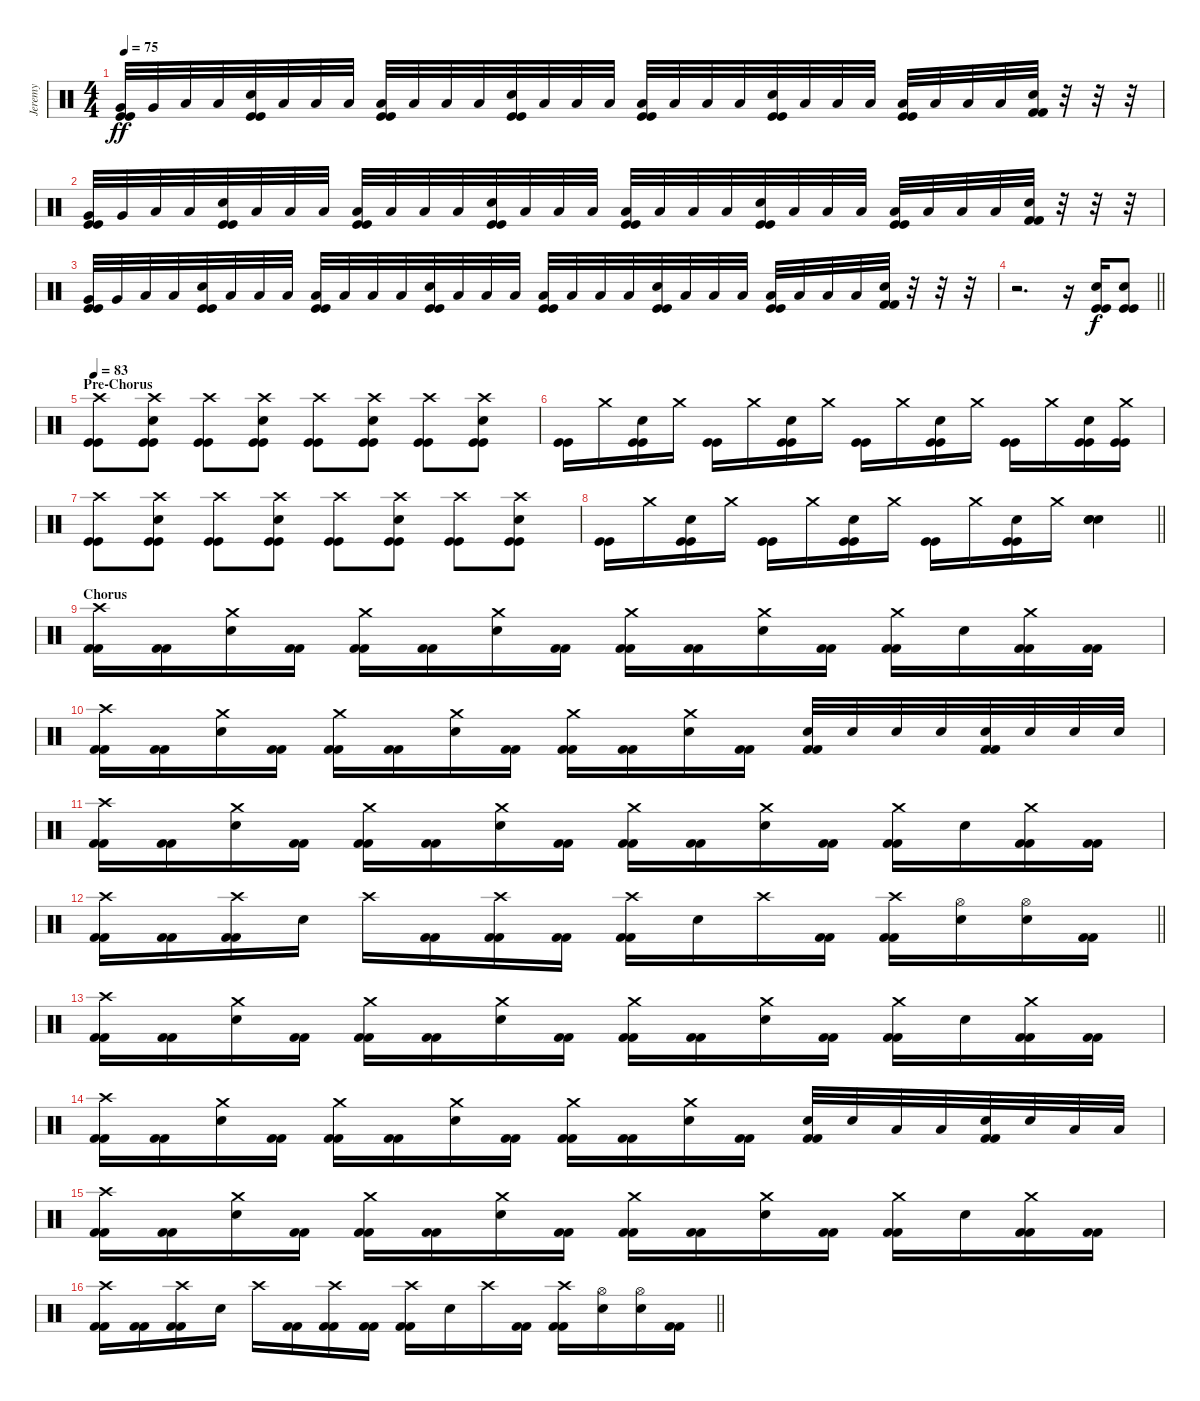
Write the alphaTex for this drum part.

\track ("Jeremy" "Jeremy") {instrument percussion}
\staff {score}
\articulation defaults
\ts (4 4)
\tempo 75
\clef neutral
\ks c
("Very Low Tom (hit)" "Kick (hit)" "Kick (hit)").32{dy ff} "Very Low Tom (hit)".32 "Low Floor Tom (hit)".32 "Low Floor Tom (hit)".32 ("Electric Snare (hit)" "Kick (hit)" "Kick (hit)").32 "Low Floor Tom (hit)".32 "Low Floor Tom (hit)".32 "Low Floor Tom (hit)".32 ("Low Floor Tom (hit)" "Kick (hit)" "Kick (hit)").32 "Low Floor Tom (hit)".32 "Low Floor Tom (hit)".32 "Low Floor Tom (hit)".32 ("Electric Snare (hit)" "Kick (hit)" "Kick (hit)").32 "Low Floor Tom (hit)".32 "Low Floor Tom (hit)".32 "Low Floor Tom (hit)".32 ("Low Floor Tom (hit)" "Kick (hit)" "Kick (hit)").32 "Low Floor Tom (hit)".32 "Low Floor Tom (hit)".32 "Low Floor Tom (hit)".32 ("Electric Snare (hit)" "Kick (hit)" "Kick (hit)").32 "Low Floor Tom (hit)".32 "Low Floor Tom (hit)".32 "Low Floor Tom (hit)".32 ("Low Floor Tom (hit)" "Kick (hit)" "Kick (hit)").32 "Low Floor Tom (hit)".32 "Low Floor Tom (hit)".32 "Low Floor Tom (hit)".32 ("Electric Snare (hit)" "Kick (hit) 2" "Kick (hit) 2").32 r.32 r.32 r.32 |
("Very Low Tom (hit)" "Kick (hit)" "Kick (hit)").32 "Very Low Tom (hit)".32 "Low Floor Tom (hit)".32 "Low Floor Tom (hit)".32 ("Electric Snare (hit)" "Kick (hit)" "Kick (hit)").32 "Low Floor Tom (hit)".32 "Low Floor Tom (hit)".32 "Low Floor Tom (hit)".32 ("Low Floor Tom (hit)" "Kick (hit)" "Kick (hit)").32 "Low Floor Tom (hit)".32 "Low Floor Tom (hit)".32 "Low Floor Tom (hit)".32 ("Electric Snare (hit)" "Kick (hit)" "Kick (hit)").32 "Low Floor Tom (hit)".32 "Low Floor Tom (hit)".32 "Low Floor Tom (hit)".32 ("Low Floor Tom (hit)" "Kick (hit)" "Kick (hit)").32 "Low Floor Tom (hit)".32 "Low Floor Tom (hit)".32 "Low Floor Tom (hit)".32 ("Electric Snare (hit)" "Kick (hit)" "Kick (hit)").32 "Low Floor Tom (hit)".32 "Low Floor Tom (hit)".32 "Low Floor Tom (hit)".32 ("Low Floor Tom (hit)" "Kick (hit)" "Kick (hit)").32 "Low Floor Tom (hit)".32 "Low Floor Tom (hit)".32 "Low Floor Tom (hit)".32 ("Electric Snare (hit)" "Kick (hit) 2" "Kick (hit) 2").32 r.32 r.32 r.32 |
("Very Low Tom (hit)" "Kick (hit)" "Kick (hit)").32 "Very Low Tom (hit)".32 "Low Floor Tom (hit)".32 "Low Floor Tom (hit)".32 ("Electric Snare (hit)" "Kick (hit)" "Kick (hit)").32 "Low Floor Tom (hit)".32 "Low Floor Tom (hit)".32 "Low Floor Tom (hit)".32 ("Low Floor Tom (hit)" "Kick (hit)" "Kick (hit)").32 "Low Floor Tom (hit)".32 "Low Floor Tom (hit)".32 "Low Floor Tom (hit)".32 ("Electric Snare (hit)" "Kick (hit)" "Kick (hit)").32 "Low Floor Tom (hit)".32 "Low Floor Tom (hit)".32 "Low Floor Tom (hit)".32 ("Low Floor Tom (hit)" "Kick (hit)" "Kick (hit)").32 "Low Floor Tom (hit)".32 "Low Floor Tom (hit)".32 "Low Floor Tom (hit)".32 ("Electric Snare (hit)" "Kick (hit)" "Kick (hit)").32 "Low Floor Tom (hit)".32 "Low Floor Tom (hit)".32 "Low Floor Tom (hit)".32 ("Low Floor Tom (hit)" "Kick (hit)" "Kick (hit)").32 "Low Floor Tom (hit)".32 "Low Floor Tom (hit)".32 "Low Floor Tom (hit)".32 ("Electric Snare (hit)" "Kick (hit) 2" "Kick (hit) 2").32 r.32 r.32 r.32 |
\barLineRight lightlight
r.2{d} r.16 ("Electric Snare (hit)" "Kick (hit)" "Kick (hit)").16{dy f} ("Electric Snare (hit)" "Kick (hit)" "Kick (hit)").8 |
\section ("" "Pre-Chorus")
\tempo 83
("Crash high (hit)" "Kick (hit)" "Kick (hit)").8 ("Crash high (hit)" "Electric Snare (hit)" "Kick (hit)" "Kick (hit)").8 ("Crash high (hit)" "Kick (hit)" "Kick (hit)").8 ("Crash high (hit)" "Electric Snare (hit)" "Kick (hit)" "Kick (hit)").8 ("Crash high (hit)" "Kick (hit)" "Kick (hit)").8 ("Crash high (hit)" "Electric Snare (hit)" "Kick (hit)" "Kick (hit)").8 ("Crash high (hit)" "Kick (hit)" "Kick (hit)").8 ("Crash high (hit)" "Electric Snare (hit)" "Kick (hit)" "Kick (hit)").8 |
("Kick (hit)" "Kick (hit)").16 "Crash medium (hit)".16 ("Electric Snare (hit)" "Kick (hit)" "Kick (hit)").16 "Crash medium (hit)".16 ("Kick (hit)" "Kick (hit)").16 "Crash medium (hit)".16 ("Electric Snare (hit)" "Kick (hit)" "Kick (hit)").16 "Crash medium (hit)".16 ("Kick (hit)" "Kick (hit)").16 "Crash medium (hit)".16 ("Electric Snare (hit)" "Kick (hit)" "Kick (hit)").16 "Crash medium (hit)".16 ("Kick (hit)" "Kick (hit)").16 "Crash medium (hit)".16 ("Electric Snare (hit)" "Kick (hit)" "Kick (hit)").16 ("Crash medium (hit)" "Kick (hit)" "Kick (hit)").16 |
("Crash high (hit)" "Kick (hit)" "Kick (hit)").8 ("Crash high (hit)" "Electric Snare (hit)" "Kick (hit)" "Kick (hit)").8 ("Crash high (hit)" "Kick (hit)" "Kick (hit)").8 ("Crash high (hit)" "Electric Snare (hit)" "Kick (hit)" "Kick (hit)").8 ("Crash high (hit)" "Kick (hit)" "Kick (hit)").8 ("Crash high (hit)" "Electric Snare (hit)" "Kick (hit)" "Kick (hit)").8 ("Crash high (hit)" "Kick (hit)" "Kick (hit)").8 ("Crash high (hit)" "Electric Snare (hit)" "Kick (hit)" "Kick (hit)").8 |
\barLineRight lightlight
("Kick (hit)" "Kick (hit)").16 "Crash medium (hit)".16 ("Electric Snare (hit)" "Kick (hit)" "Kick (hit)").16 "Crash medium (hit)".16 ("Kick (hit)" "Kick (hit)").16 "Crash medium (hit)".16 ("Electric Snare (hit)" "Kick (hit)" "Kick (hit)").16 "Crash medium (hit)".16 ("Kick (hit)" "Kick (hit)").16 "Crash medium (hit)".16 ("Electric Snare (hit)" "Kick (hit)" "Kick (hit)").16 "Crash medium (hit)".16 ("Electric Snare (hit)" "Electric Snare (hit)" "Electric Snare (hit)").4 |
\section ("" "Chorus")
("Crash high (hit)" "Kick (hit) 2" "Kick (hit) 2").16 ("Kick (hit) 2" "Kick (hit) 2").16 ("Crash medium (hit)" "Electric Snare (hit)").16 ("Kick (hit) 2" "Kick (hit) 2").16 ("Crash medium (hit)" "Kick (hit) 2" "Kick (hit) 2").16 ("Kick (hit) 2" "Kick (hit) 2").16 ("Crash medium (hit)" "Electric Snare (hit)").16 ("Kick (hit) 2" "Kick (hit) 2").16 ("Crash medium (hit)" "Kick (hit) 2" "Kick (hit) 2").16 ("Kick (hit) 2" "Kick (hit) 2").16 ("Crash medium (hit)" "Electric Snare (hit)").16 ("Kick (hit) 2" "Kick (hit) 2").16 ("Crash medium (hit)" "Kick (hit) 2" "Kick (hit) 2").16 "Electric Snare (hit)".16 ("Crash medium (hit)" "Kick (hit) 2" "Kick (hit) 2").16 ("Kick (hit) 2" "Kick (hit) 2").16 |
("Crash high (hit)" "Kick (hit) 2" "Kick (hit) 2").16 ("Kick (hit) 2" "Kick (hit) 2").16 ("Crash medium (hit)" "Electric Snare (hit)").16 ("Kick (hit) 2" "Kick (hit) 2").16 ("Crash medium (hit)" "Kick (hit) 2" "Kick (hit) 2").16 ("Kick (hit) 2" "Kick (hit) 2").16 ("Crash medium (hit)" "Electric Snare (hit)").16 ("Kick (hit) 2" "Kick (hit) 2").16 ("Crash medium (hit)" "Kick (hit) 2" "Kick (hit) 2").16 ("Kick (hit) 2" "Kick (hit) 2").16 ("Crash medium (hit)" "Electric Snare (hit)").16 ("Kick (hit) 2" "Kick (hit) 2").16 ("Electric Snare (hit)" "Kick (hit) 2" "Kick (hit) 2").32 "Electric Snare (hit)".32 "Electric Snare (hit)".32 "Electric Snare (hit)".32 ("Electric Snare (hit)" "Kick (hit) 2" "Kick (hit) 2").32 "Electric Snare (hit)".32 "Electric Snare (hit)".32 "Electric Snare (hit)".32 |
("Crash high (hit)" "Kick (hit) 2" "Kick (hit) 2").16 ("Kick (hit) 2" "Kick (hit) 2").16 ("Crash medium (hit)" "Electric Snare (hit)").16 ("Kick (hit) 2" "Kick (hit) 2").16 ("Crash medium (hit)" "Kick (hit) 2" "Kick (hit) 2").16 ("Kick (hit) 2" "Kick (hit) 2").16 ("Crash medium (hit)" "Electric Snare (hit)").16 ("Kick (hit) 2" "Kick (hit) 2").16 ("Crash medium (hit)" "Kick (hit) 2" "Kick (hit) 2").16 ("Kick (hit) 2" "Kick (hit) 2").16 ("Crash medium (hit)" "Electric Snare (hit)").16 ("Kick (hit) 2" "Kick (hit) 2").16 ("Crash medium (hit)" "Kick (hit) 2" "Kick (hit) 2").16 "Electric Snare (hit)".16 ("Crash medium (hit)" "Kick (hit) 2" "Kick (hit) 2").16 ("Kick (hit) 2" "Kick (hit) 2").16 |
\barLineRight lightlight
("Crash high (hit)" "Kick (hit) 2" "Kick (hit) 2").16 ("Kick (hit) 2" "Kick (hit) 2").16 ("Crash high (hit)" "Kick (hit) 2" "Kick (hit) 2").16 "Electric Snare (hit)".16 "Crash high (hit)".16 ("Kick (hit) 2" "Kick (hit) 2").16 ("Crash high (hit)" "Kick (hit) 2" "Kick (hit) 2").16 ("Kick (hit) 2" "Kick (hit) 2").16 ("Crash high (hit)" "Kick (hit) 2" "Kick (hit) 2").16 "Electric Snare (hit)".16 "Crash high (hit)".16 ("Kick (hit) 2" "Kick (hit) 2").16 ("Crash high (hit)" "Kick (hit) 2" "Kick (hit) 2").16 ("Hi-Hat (open)" "Electric Snare (hit)").16 ("Hi-Hat (open)" "Electric Snare (hit)").16 ("Kick (hit) 2" "Kick (hit) 2").16 |
("Crash high (hit)" "Kick (hit) 2" "Kick (hit) 2").16 ("Kick (hit) 2" "Kick (hit) 2").16 ("Crash medium (hit)" "Electric Snare (hit)").16 ("Kick (hit) 2" "Kick (hit) 2").16 ("Crash medium (hit)" "Kick (hit) 2" "Kick (hit) 2").16 ("Kick (hit) 2" "Kick (hit) 2").16 ("Crash medium (hit)" "Electric Snare (hit)").16 ("Kick (hit) 2" "Kick (hit) 2").16 ("Crash medium (hit)" "Kick (hit) 2" "Kick (hit) 2").16 ("Kick (hit) 2" "Kick (hit) 2").16 ("Crash medium (hit)" "Electric Snare (hit)").16 ("Kick (hit) 2" "Kick (hit) 2").16 ("Crash medium (hit)" "Kick (hit) 2" "Kick (hit) 2").16 "Electric Snare (hit)".16 ("Crash medium (hit)" "Kick (hit) 2" "Kick (hit) 2").16 ("Kick (hit) 2" "Kick (hit) 2").16 |
("Crash high (hit)" "Kick (hit) 2" "Kick (hit) 2").16 ("Kick (hit) 2" "Kick (hit) 2").16 ("Crash medium (hit)" "Electric Snare (hit)").16 ("Kick (hit) 2" "Kick (hit) 2").16 ("Crash medium (hit)" "Kick (hit) 2" "Kick (hit) 2").16 ("Kick (hit) 2" "Kick (hit) 2").16 ("Crash medium (hit)" "Electric Snare (hit)").16 ("Kick (hit) 2" "Kick (hit) 2").16 ("Crash medium (hit)" "Kick (hit) 2" "Kick (hit) 2").16 ("Kick (hit) 2" "Kick (hit) 2").16 ("Crash medium (hit)" "Electric Snare (hit)").16 ("Kick (hit) 2" "Kick (hit) 2").16 ("Electric Snare (hit)" "Kick (hit) 2" "Kick (hit) 2").32 "Electric Snare (hit)".32 "Low Tom (hit)".32 "Low Tom (hit)".32 ("Electric Snare (hit)" "Kick (hit) 2" "Kick (hit) 2").32 "Electric Snare (hit)".32 "Low Tom (hit)".32 "Low Tom (hit)".32 |
("Crash high (hit)" "Kick (hit) 2" "Kick (hit) 2").16 ("Kick (hit) 2" "Kick (hit) 2").16 ("Crash medium (hit)" "Electric Snare (hit)").16 ("Kick (hit) 2" "Kick (hit) 2").16 ("Crash medium (hit)" "Kick (hit) 2" "Kick (hit) 2").16 ("Kick (hit) 2" "Kick (hit) 2").16 ("Crash medium (hit)" "Electric Snare (hit)").16 ("Kick (hit) 2" "Kick (hit) 2").16 ("Crash medium (hit)" "Kick (hit) 2" "Kick (hit) 2").16 ("Kick (hit) 2" "Kick (hit) 2").16 ("Crash medium (hit)" "Electric Snare (hit)").16 ("Kick (hit) 2" "Kick (hit) 2").16 ("Crash medium (hit)" "Kick (hit) 2" "Kick (hit) 2").16 "Electric Snare (hit)".16 ("Crash medium (hit)" "Kick (hit) 2" "Kick (hit) 2").16 ("Kick (hit) 2" "Kick (hit) 2").16 |
\barLineRight lightlight
("Crash high (hit)" "Kick (hit) 2" "Kick (hit) 2").16 ("Kick (hit) 2" "Kick (hit) 2").16 ("Crash high (hit)" "Kick (hit) 2" "Kick (hit) 2").16 "Electric Snare (hit)".16 "Crash high (hit)".16 ("Kick (hit) 2" "Kick (hit) 2").16 ("Crash high (hit)" "Kick (hit) 2" "Kick (hit) 2").16 ("Kick (hit) 2" "Kick (hit) 2").16 ("Crash high (hit)" "Kick (hit) 2" "Kick (hit) 2").16 "Electric Snare (hit)".16 "Crash high (hit)".16 ("Kick (hit) 2" "Kick (hit) 2").16 ("Crash high (hit)" "Kick (hit) 2" "Kick (hit) 2").16 ("Hi-Hat (open)" "Electric Snare (hit)").16 ("Hi-Hat (open)" "Electric Snare (hit)").16 ("Kick (hit) 2" "Kick (hit) 2").16
